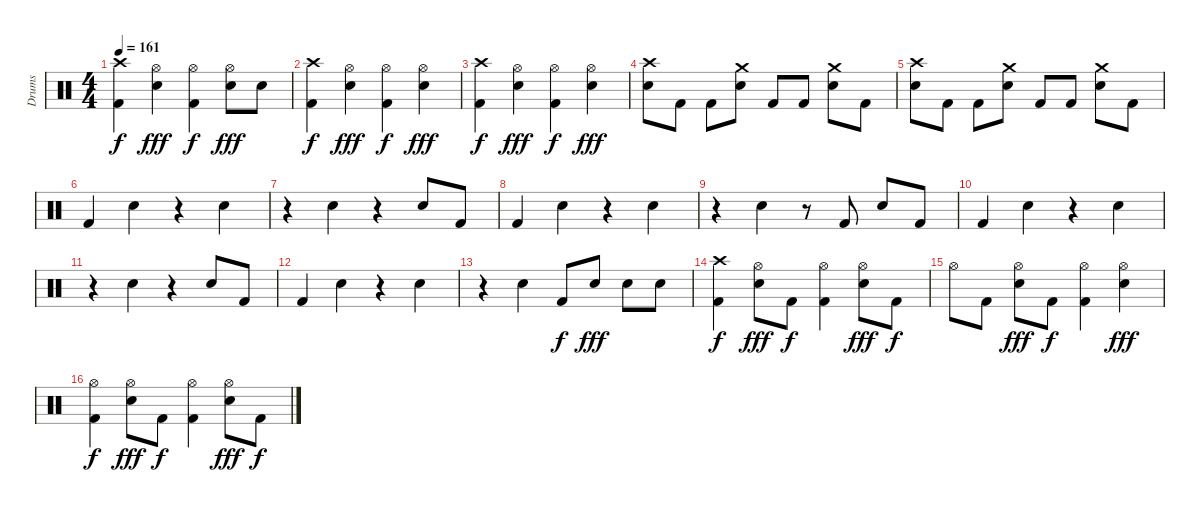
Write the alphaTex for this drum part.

\track ("Drums" "Drums") {instrument percussion}
\staff {score}
\articulation defaults
\ts (4 4)
\tempo 161
\clef neutral
\ks c
("Crash high (hit)" "Kick (hit) 2").4{dy f} ("Hi-Hat (open)" "Electric Snare (hit)").4{dy fff} ("Hi-Hat (open)" "Kick (hit) 2").4{dy f} ("Hi-Hat (open)" "Electric Snare (hit)").8{dy fff} "Electric Snare (hit)".8 |
("Crash high (hit)" "Kick (hit) 2").4{dy f} ("Hi-Hat (open)" "Electric Snare (hit)").4{dy fff} ("Hi-Hat (open)" "Kick (hit) 2").4{dy f} ("Hi-Hat (open)" "Electric Snare (hit)").4{dy fff} |
("Crash high (hit)" "Kick (hit) 2").4{dy f} ("Hi-Hat (open)" "Electric Snare (hit)").4{dy fff} ("Hi-Hat (open)" "Kick (hit) 2").4{dy f} ("Hi-Hat (open)" "Electric Snare (hit)").4{dy fff} |
("Crash high (hit)" "Electric Snare (hit)").8 "Kick (hit) 2".8 "Kick (hit) 2".8 ("Crash medium (hit)" "Electric Snare (hit)").8 "Kick (hit) 2".8 "Kick (hit) 2".8 ("Crash medium (hit)" "Electric Snare (hit)").8 "Kick (hit) 2".8 |
("Crash high (hit)" "Electric Snare (hit)").8 "Kick (hit) 2".8 "Kick (hit) 2".8 ("Crash medium (hit)" "Electric Snare (hit)").8 "Kick (hit) 2".8 "Kick (hit) 2".8 ("Crash medium (hit)" "Electric Snare (hit)").8 "Kick (hit) 2".8 |
"Kick (hit) 2".4 "Electric Snare (hit)".4 r.4 "Electric Snare (hit)".4 |
r.4 "Electric Snare (hit)".4 r.4 "Electric Snare (hit)".8 "Kick (hit) 2".8 |
"Kick (hit) 2".4 "Electric Snare (hit)".4 r.4 "Electric Snare (hit)".4 |
r.4 "Electric Snare (hit)".4 r.8 "Kick (hit) 2".8 "Electric Snare (hit)".8 "Kick (hit) 2".8 |
"Kick (hit) 2".4 "Electric Snare (hit)".4 r.4 "Electric Snare (hit)".4 |
r.4 "Electric Snare (hit)".4 r.4 "Electric Snare (hit)".8 "Kick (hit) 2".8 |
"Kick (hit) 2".4 "Electric Snare (hit)".4 r.4 "Electric Snare (hit)".4 |
r.4 "Electric Snare (hit)".4 "Kick (hit) 2".8{dy f} "Electric Snare (hit)".8{dy fff} "Electric Snare (hit)".8 "Electric Snare (hit)".8 |
("Crash high (hit)" "Kick (hit) 2").4{dy f} ("Hi-Hat (open)" "Electric Snare (hit)").8{dy fff} "Kick (hit) 2".8{dy f} ("Hi-Hat (open)" "Kick (hit) 2").4 ("Hi-Hat (open)" "Electric Snare (hit)").8{dy fff} "Kick (hit) 2".8{dy f} |
"Hi-Hat (open)".8 "Kick (hit) 2".8 ("Hi-Hat (open)" "Electric Snare (hit)").8{dy fff} "Kick (hit) 2".8{dy f} ("Hi-Hat (open)" "Kick (hit) 2").4 ("Hi-Hat (open)" "Electric Snare (hit)").4{dy fff} |
("Hi-Hat (open)" "Kick (hit) 2").4{dy f} ("Hi-Hat (open)" "Electric Snare (hit)").8{dy fff} "Kick (hit) 2".8{dy f} ("Hi-Hat (open)" "Kick (hit) 2").4 ("Hi-Hat (open)" "Electric Snare (hit)").8{dy fff} "Kick (hit) 2".8{dy f}
